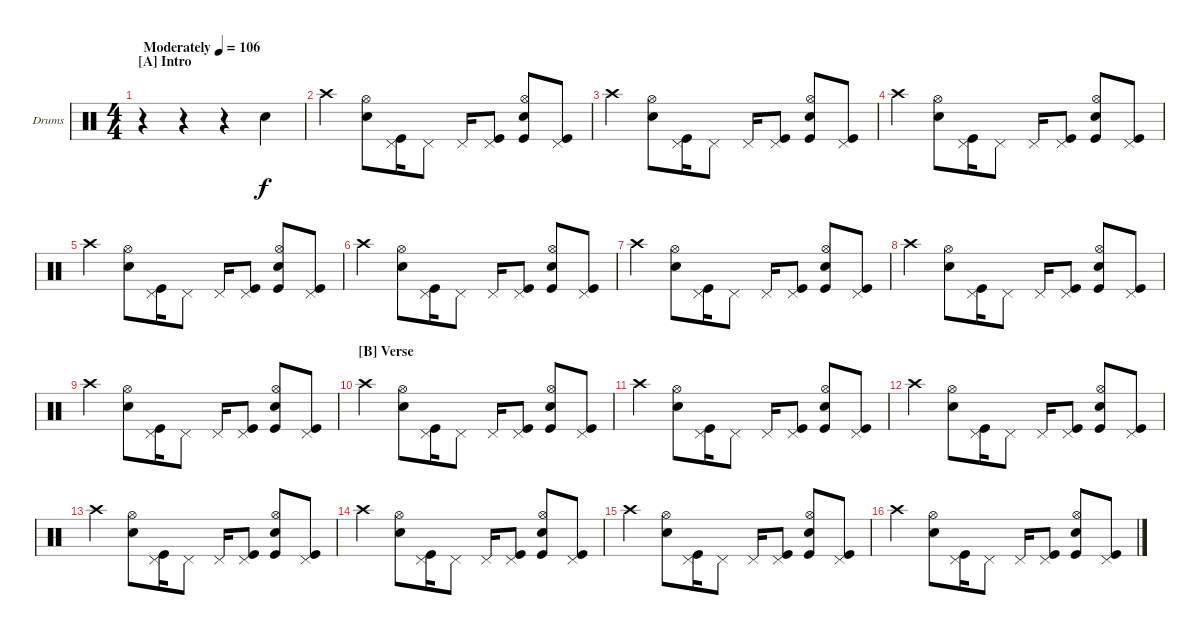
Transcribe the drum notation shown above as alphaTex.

\bracketExtendMode groupsimilarinstruments
\firstSystemTrackNameOrientation horizontal
\otherSystemsTrackNameOrientation horizontal
\track ("Drumkit" "Drums") {instrument percussion}
\staff {score}
\articulation defaults
\ts (4 4)
\section ("A" "Intro")
\tempo (106 "Moderately")
\clef neutral
\ks c
r.4{dy f} r.4 r.4 "Snare (hit) 2".4 |
"Crash high (hit)".4 ("Hi-Hat (open)" "Snare (hit) 2").8 ("Pedal Hi-Hat (hit)" "Kick (hit)").16 "Pedal Hi-Hat (hit)".8 "Pedal Hi-Hat (hit)".16 ("Pedal Hi-Hat (hit)" "Kick (hit)").8 ("Hi-Hat (open)" "Snare (hit) 2" "Kick (hit)").8 ("Pedal Hi-Hat (hit)" "Kick (hit)").8 |
"Crash high (hit)".4 ("Hi-Hat (open)" "Snare (hit) 2").8 ("Pedal Hi-Hat (hit)" "Kick (hit)").16 "Pedal Hi-Hat (hit)".8 "Pedal Hi-Hat (hit)".16 ("Pedal Hi-Hat (hit)" "Kick (hit)").8 ("Hi-Hat (open)" "Snare (hit) 2" "Kick (hit)").8 ("Pedal Hi-Hat (hit)" "Kick (hit)").8 |
"Crash high (hit)".4 ("Hi-Hat (open)" "Snare (hit) 2").8 ("Pedal Hi-Hat (hit)" "Kick (hit)").16 "Pedal Hi-Hat (hit)".8 "Pedal Hi-Hat (hit)".16 ("Pedal Hi-Hat (hit)" "Kick (hit)").8 ("Hi-Hat (open)" "Snare (hit) 2" "Kick (hit)").8 ("Pedal Hi-Hat (hit)" "Kick (hit)").8 |
"Crash high (hit)".4 ("Hi-Hat (open)" "Snare (hit) 2").8 ("Pedal Hi-Hat (hit)" "Kick (hit)").16 "Pedal Hi-Hat (hit)".8 "Pedal Hi-Hat (hit)".16 ("Pedal Hi-Hat (hit)" "Kick (hit)").8 ("Hi-Hat (open)" "Snare (hit) 2" "Kick (hit)").8 ("Pedal Hi-Hat (hit)" "Kick (hit)").8 |
"Crash high (hit)".4 ("Hi-Hat (open)" "Snare (hit) 2").8 ("Pedal Hi-Hat (hit)" "Kick (hit)").16 "Pedal Hi-Hat (hit)".8 "Pedal Hi-Hat (hit)".16 ("Pedal Hi-Hat (hit)" "Kick (hit)").8 ("Hi-Hat (open)" "Snare (hit) 2" "Kick (hit)").8 ("Pedal Hi-Hat (hit)" "Kick (hit)").8 |
"Crash high (hit)".4 ("Hi-Hat (open)" "Snare (hit) 2").8 ("Pedal Hi-Hat (hit)" "Kick (hit)").16 "Pedal Hi-Hat (hit)".8 "Pedal Hi-Hat (hit)".16 ("Pedal Hi-Hat (hit)" "Kick (hit)").8 ("Hi-Hat (open)" "Snare (hit) 2" "Kick (hit)").8 ("Pedal Hi-Hat (hit)" "Kick (hit)").8 |
"Crash high (hit)".4 ("Hi-Hat (open)" "Snare (hit) 2").8 ("Pedal Hi-Hat (hit)" "Kick (hit)").16 "Pedal Hi-Hat (hit)".8 "Pedal Hi-Hat (hit)".16 ("Pedal Hi-Hat (hit)" "Kick (hit)").8 ("Hi-Hat (open)" "Snare (hit) 2" "Kick (hit)").8 ("Pedal Hi-Hat (hit)" "Kick (hit)").8 |
"Crash high (hit)".4 ("Hi-Hat (open)" "Snare (hit) 2").8 ("Pedal Hi-Hat (hit)" "Kick (hit)").16 "Pedal Hi-Hat (hit)".8 "Pedal Hi-Hat (hit)".16 ("Pedal Hi-Hat (hit)" "Kick (hit)").8 ("Hi-Hat (open)" "Snare (hit) 2" "Kick (hit)").8 ("Pedal Hi-Hat (hit)" "Kick (hit)").8 |
\section ("B" "Verse")
"Crash high (hit)".4 ("Hi-Hat (open)" "Snare (hit) 2").8 ("Pedal Hi-Hat (hit)" "Kick (hit)").16 "Pedal Hi-Hat (hit)".8 "Pedal Hi-Hat (hit)".16 ("Pedal Hi-Hat (hit)" "Kick (hit)").8 ("Hi-Hat (open)" "Snare (hit) 2" "Kick (hit)").8 ("Pedal Hi-Hat (hit)" "Kick (hit)").8 |
"Crash high (hit)".4 ("Hi-Hat (open)" "Snare (hit) 2").8 ("Pedal Hi-Hat (hit)" "Kick (hit)").16 "Pedal Hi-Hat (hit)".8 "Pedal Hi-Hat (hit)".16 ("Pedal Hi-Hat (hit)" "Kick (hit)").8 ("Hi-Hat (open)" "Snare (hit) 2" "Kick (hit)").8 ("Pedal Hi-Hat (hit)" "Kick (hit)").8 |
"Crash high (hit)".4 ("Hi-Hat (open)" "Snare (hit) 2").8 ("Pedal Hi-Hat (hit)" "Kick (hit)").16 "Pedal Hi-Hat (hit)".8 "Pedal Hi-Hat (hit)".16 ("Pedal Hi-Hat (hit)" "Kick (hit)").8 ("Hi-Hat (open)" "Snare (hit) 2" "Kick (hit)").8 ("Pedal Hi-Hat (hit)" "Kick (hit)").8 |
"Crash high (hit)".4 ("Hi-Hat (open)" "Snare (hit) 2").8 ("Pedal Hi-Hat (hit)" "Kick (hit)").16 "Pedal Hi-Hat (hit)".8 "Pedal Hi-Hat (hit)".16 ("Pedal Hi-Hat (hit)" "Kick (hit)").8 ("Hi-Hat (open)" "Snare (hit) 2" "Kick (hit)").8 ("Pedal Hi-Hat (hit)" "Kick (hit)").8 |
"Crash high (hit)".4 ("Hi-Hat (open)" "Snare (hit) 2").8 ("Pedal Hi-Hat (hit)" "Kick (hit)").16 "Pedal Hi-Hat (hit)".8 "Pedal Hi-Hat (hit)".16 ("Pedal Hi-Hat (hit)" "Kick (hit)").8 ("Hi-Hat (open)" "Snare (hit) 2" "Kick (hit)").8 ("Pedal Hi-Hat (hit)" "Kick (hit)").8 |
"Crash high (hit)".4 ("Hi-Hat (open)" "Snare (hit) 2").8 ("Pedal Hi-Hat (hit)" "Kick (hit)").16 "Pedal Hi-Hat (hit)".8 "Pedal Hi-Hat (hit)".16 ("Pedal Hi-Hat (hit)" "Kick (hit)").8 ("Hi-Hat (open)" "Snare (hit) 2" "Kick (hit)").8 ("Pedal Hi-Hat (hit)" "Kick (hit)").8 |
"Crash high (hit)".4 ("Hi-Hat (open)" "Snare (hit) 2").8 ("Pedal Hi-Hat (hit)" "Kick (hit)").16 "Pedal Hi-Hat (hit)".8 "Pedal Hi-Hat (hit)".16 ("Pedal Hi-Hat (hit)" "Kick (hit)").8 ("Hi-Hat (open)" "Snare (hit) 2" "Kick (hit)").8 ("Pedal Hi-Hat (hit)" "Kick (hit)").8
